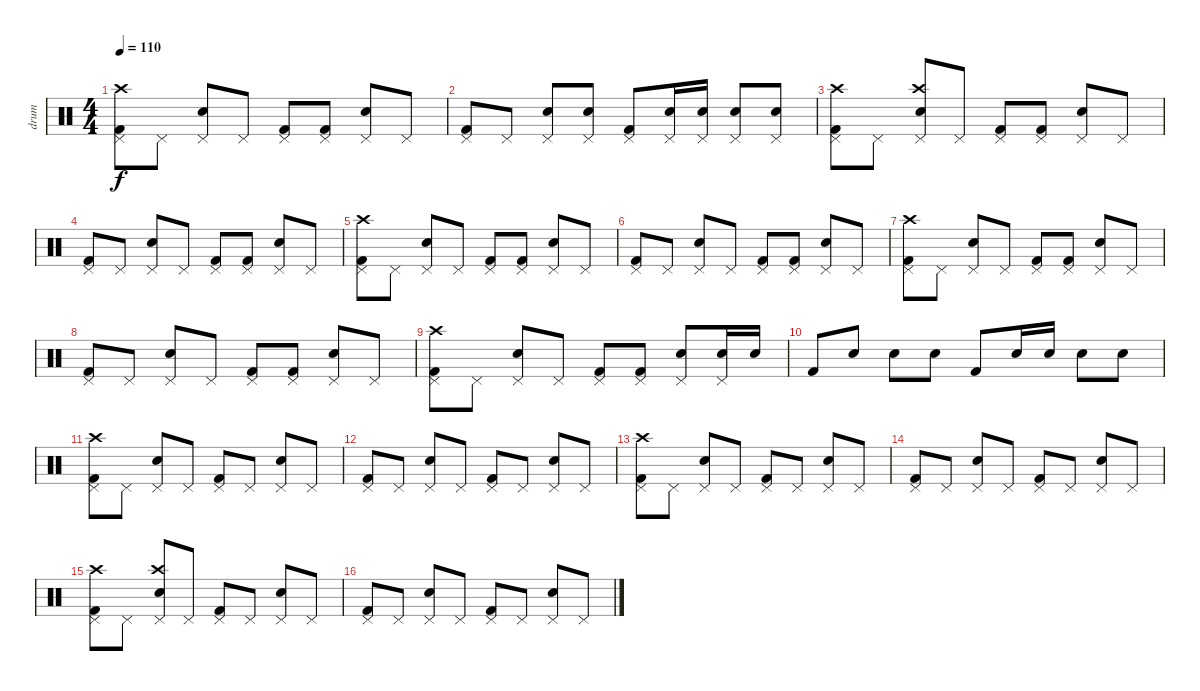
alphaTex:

\track ("drum" "drum") {instrument percussion}
\staff {score}
\articulation defaults
\ts (4 4)
\tempo 110
\clef neutral
\ks c
("Pedal Hi-Hat (hit)" "Kick (hit) 2" "Crash high (hit)").8{dy f} "Pedal Hi-Hat (hit)".8 ("Pedal Hi-Hat (hit)" "Electric Snare (hit)").8 "Pedal Hi-Hat (hit)".8 ("Pedal Hi-Hat (hit)" "Kick (hit) 2").8 ("Pedal Hi-Hat (hit)" "Kick (hit) 2").8 ("Pedal Hi-Hat (hit)" "Electric Snare (hit)").8 "Pedal Hi-Hat (hit)".8 |
("Pedal Hi-Hat (hit)" "Kick (hit) 2").8 "Pedal Hi-Hat (hit)".8 ("Pedal Hi-Hat (hit)" "Electric Snare (hit)").8 ("Pedal Hi-Hat (hit)" "Electric Snare (hit)").8 ("Pedal Hi-Hat (hit)" "Kick (hit) 2").8 ("Pedal Hi-Hat (hit)" "Electric Snare (hit)").16 ("Pedal Hi-Hat (hit)" "Electric Snare (hit)").16 ("Pedal Hi-Hat (hit)" "Electric Snare (hit)").8 ("Pedal Hi-Hat (hit)" "Electric Snare (hit)").8 |
("Pedal Hi-Hat (hit)" "Kick (hit) 2" "Crash high (hit)").8 "Pedal Hi-Hat (hit)".8 ("Pedal Hi-Hat (hit)" "Electric Snare (hit)" "Crash high (hit)").8 "Pedal Hi-Hat (hit)".8 ("Pedal Hi-Hat (hit)" "Kick (hit) 2").8 ("Pedal Hi-Hat (hit)" "Kick (hit) 2").8 ("Pedal Hi-Hat (hit)" "Electric Snare (hit)").8 "Pedal Hi-Hat (hit)".8 |
("Pedal Hi-Hat (hit)" "Kick (hit) 2").8 "Pedal Hi-Hat (hit)".8 ("Pedal Hi-Hat (hit)" "Electric Snare (hit)").8 "Pedal Hi-Hat (hit)".8 ("Pedal Hi-Hat (hit)" "Kick (hit) 2").8 ("Pedal Hi-Hat (hit)" "Kick (hit) 2").8 ("Pedal Hi-Hat (hit)" "Electric Snare (hit)").8 "Pedal Hi-Hat (hit)".8 |
("Pedal Hi-Hat (hit)" "Kick (hit) 2" "Crash high (hit)").8 "Pedal Hi-Hat (hit)".8 ("Pedal Hi-Hat (hit)" "Electric Snare (hit)").8 "Pedal Hi-Hat (hit)".8 ("Pedal Hi-Hat (hit)" "Kick (hit) 2").8 ("Pedal Hi-Hat (hit)" "Kick (hit) 2").8 ("Pedal Hi-Hat (hit)" "Electric Snare (hit)").8 "Pedal Hi-Hat (hit)".8 |
("Pedal Hi-Hat (hit)" "Kick (hit) 2").8 "Pedal Hi-Hat (hit)".8 ("Pedal Hi-Hat (hit)" "Electric Snare (hit)").8 "Pedal Hi-Hat (hit)".8 ("Pedal Hi-Hat (hit)" "Kick (hit) 2").8 ("Pedal Hi-Hat (hit)" "Kick (hit) 2").8 ("Pedal Hi-Hat (hit)" "Electric Snare (hit)").8 "Pedal Hi-Hat (hit)".8 |
("Pedal Hi-Hat (hit)" "Kick (hit) 2" "Crash high (hit)").8 "Pedal Hi-Hat (hit)".8 ("Pedal Hi-Hat (hit)" "Electric Snare (hit)").8 "Pedal Hi-Hat (hit)".8 ("Pedal Hi-Hat (hit)" "Kick (hit) 2").8 ("Pedal Hi-Hat (hit)" "Kick (hit) 2").8 ("Pedal Hi-Hat (hit)" "Electric Snare (hit)").8 "Pedal Hi-Hat (hit)".8 |
("Pedal Hi-Hat (hit)" "Kick (hit) 2").8 "Pedal Hi-Hat (hit)".8 ("Pedal Hi-Hat (hit)" "Electric Snare (hit)").8 "Pedal Hi-Hat (hit)".8 ("Pedal Hi-Hat (hit)" "Kick (hit) 2").8 ("Pedal Hi-Hat (hit)" "Kick (hit) 2").8 ("Pedal Hi-Hat (hit)" "Electric Snare (hit)").8 "Pedal Hi-Hat (hit)".8 |
("Pedal Hi-Hat (hit)" "Kick (hit) 2" "Crash high (hit)").8 "Pedal Hi-Hat (hit)".8 ("Pedal Hi-Hat (hit)" "Electric Snare (hit)").8 "Pedal Hi-Hat (hit)".8 ("Pedal Hi-Hat (hit)" "Kick (hit) 2").8 ("Pedal Hi-Hat (hit)" "Kick (hit) 2").8 ("Pedal Hi-Hat (hit)" "Electric Snare (hit)").8 ("Pedal Hi-Hat (hit)" "Electric Snare (hit)").16 "Electric Snare (hit)".16 |
"Kick (hit) 2".8 "Electric Snare (hit)".8 "Electric Snare (hit)".8 "Electric Snare (hit)".8 "Kick (hit) 2".8 "Electric Snare (hit)".16 "Electric Snare (hit)".16 "Electric Snare (hit)".8 "Electric Snare (hit)".8 |
("Pedal Hi-Hat (hit)" "Kick (hit) 2" "Crash high (hit)").8 "Pedal Hi-Hat (hit)".8 ("Pedal Hi-Hat (hit)" "Electric Snare (hit)").8 "Pedal Hi-Hat (hit)".8 ("Pedal Hi-Hat (hit)" "Kick (hit) 2").8 "Pedal Hi-Hat (hit)".8 ("Pedal Hi-Hat (hit)" "Electric Snare (hit)").8 "Pedal Hi-Hat (hit)".8 |
("Pedal Hi-Hat (hit)" "Kick (hit) 2").8 "Pedal Hi-Hat (hit)".8 ("Pedal Hi-Hat (hit)" "Electric Snare (hit)").8 "Pedal Hi-Hat (hit)".8 ("Pedal Hi-Hat (hit)" "Kick (hit) 2").8 "Pedal Hi-Hat (hit)".8 ("Pedal Hi-Hat (hit)" "Electric Snare (hit)").8 "Pedal Hi-Hat (hit)".8 |
("Pedal Hi-Hat (hit)" "Kick (hit) 2" "Crash high (hit)").8 "Pedal Hi-Hat (hit)".8 ("Pedal Hi-Hat (hit)" "Electric Snare (hit)").8 "Pedal Hi-Hat (hit)".8 ("Pedal Hi-Hat (hit)" "Kick (hit) 2").8 "Pedal Hi-Hat (hit)".8 ("Pedal Hi-Hat (hit)" "Electric Snare (hit)").8 "Pedal Hi-Hat (hit)".8 |
("Pedal Hi-Hat (hit)" "Kick (hit) 2").8 "Pedal Hi-Hat (hit)".8 ("Pedal Hi-Hat (hit)" "Electric Snare (hit)").8 "Pedal Hi-Hat (hit)".8 ("Pedal Hi-Hat (hit)" "Kick (hit) 2").8 "Pedal Hi-Hat (hit)".8 ("Pedal Hi-Hat (hit)" "Electric Snare (hit)").8 "Pedal Hi-Hat (hit)".8 |
("Pedal Hi-Hat (hit)" "Kick (hit) 2" "Crash high (hit)").8 "Pedal Hi-Hat (hit)".8 ("Pedal Hi-Hat (hit)" "Electric Snare (hit)" "Crash high (hit)").8 "Pedal Hi-Hat (hit)".8 ("Pedal Hi-Hat (hit)" "Kick (hit) 2").8 "Pedal Hi-Hat (hit)".8 ("Pedal Hi-Hat (hit)" "Electric Snare (hit)").8 "Pedal Hi-Hat (hit)".8 |
("Pedal Hi-Hat (hit)" "Kick (hit) 2").8 "Pedal Hi-Hat (hit)".8 ("Pedal Hi-Hat (hit)" "Electric Snare (hit)").8 "Pedal Hi-Hat (hit)".8 ("Pedal Hi-Hat (hit)" "Kick (hit) 2").8 "Pedal Hi-Hat (hit)".8 ("Pedal Hi-Hat (hit)" "Electric Snare (hit)").8 "Pedal Hi-Hat (hit)".8
